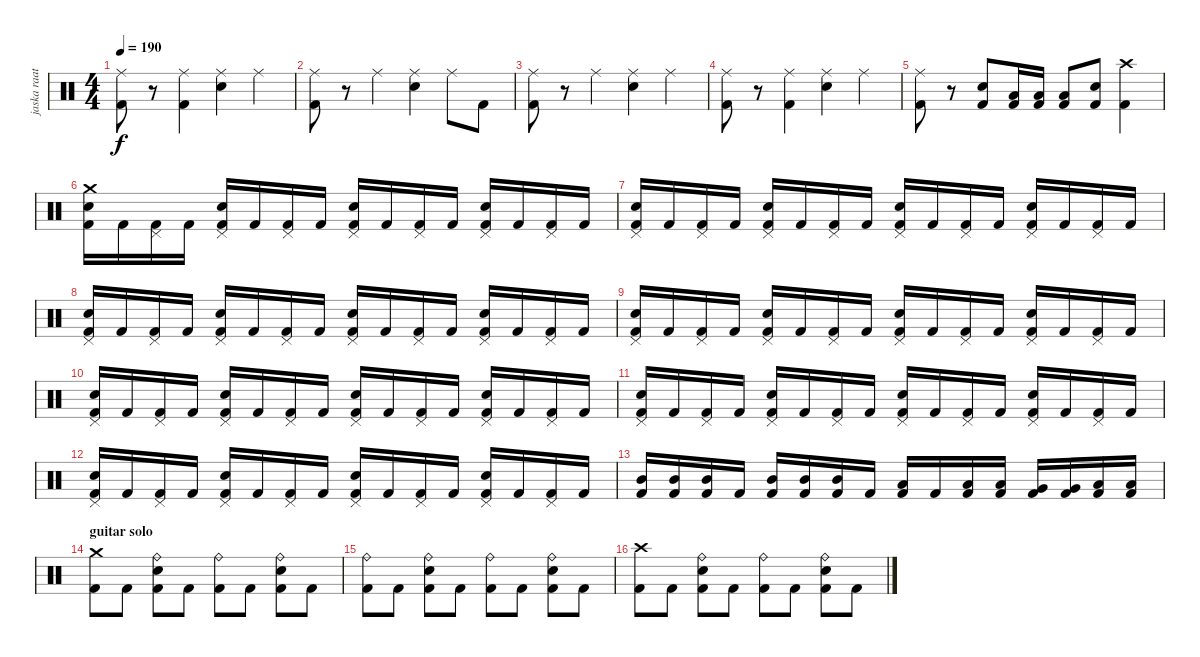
\track ("jaska raatikainen" "jaska raat") {instrument percussion}
\staff {score}
\articulation defaults
\ts (4 4)
\tempo 190
\clef neutral
\ks c
("Ride (middle)" "Kick (hit) 2").8{dy f} r.8 ("Ride (middle)" "Kick (hit) 2").4 ("Ride (middle)" "Snare (hit) 2").4 "Ride (middle)".4 |
("Ride (middle)" "Kick (hit) 2").8 r.8 "Ride (middle)".4 ("Ride (middle)" "Snare (hit) 2").4 "Ride (middle)".8 "Kick (hit) 2".8 |
("Ride (middle)" "Kick (hit) 2").8 r.8 "Ride (middle)".4 ("Ride (middle)" "Snare (hit) 2").4 "Ride (middle)".4 |
("Ride (middle)" "Kick (hit) 2").8 r.8 ("Ride (middle)" "Kick (hit) 2").4 ("Ride (middle)" "Snare (hit) 2").4 "Ride (middle)".4 |
("Ride (middle)" "Kick (hit) 2").8 r.8 ("Snare (hit) 2" "Kick (hit) 2").8 ("Low Tom (hit)" "Kick (hit) 2").16 ("Low Tom (hit)" "Kick (hit) 2").16 ("Low Tom (hit)" "Kick (hit) 2").8 ("Snare (hit) 2" "Kick (hit) 2").8 ("Crash high (hit)" "Kick (hit) 2").4 |
("Crash medium (hit)" "Snare (hit) 2" "Kick (hit) 2").16 "Kick (hit) 2".16 ("Pedal Hi-Hat (hit)" "Kick (hit) 2").16 "Kick (hit) 2".16 ("Pedal Hi-Hat (hit)" "Snare (hit) 2" "Kick (hit) 2").16 "Kick (hit) 2".16 ("Pedal Hi-Hat (hit)" "Kick (hit) 2").16 "Kick (hit) 2".16 ("Pedal Hi-Hat (hit)" "Snare (hit) 2" "Kick (hit) 2").16 "Kick (hit) 2".16 ("Pedal Hi-Hat (hit)" "Kick (hit) 2").16 "Kick (hit) 2".16 ("Pedal Hi-Hat (hit)" "Snare (hit) 2" "Kick (hit) 2").16 "Kick (hit) 2".16 ("Pedal Hi-Hat (hit)" "Kick (hit) 2").16 "Kick (hit) 2".16 |
("Pedal Hi-Hat (hit)" "Snare (hit) 2" "Kick (hit) 2").16 "Kick (hit) 2".16 ("Pedal Hi-Hat (hit)" "Kick (hit) 2").16 "Kick (hit) 2".16 ("Pedal Hi-Hat (hit)" "Snare (hit) 2" "Kick (hit) 2").16 "Kick (hit) 2".16 ("Pedal Hi-Hat (hit)" "Kick (hit) 2").16 "Kick (hit) 2".16 ("Pedal Hi-Hat (hit)" "Snare (hit) 2" "Kick (hit) 2").16 "Kick (hit) 2".16 ("Pedal Hi-Hat (hit)" "Kick (hit) 2").16 "Kick (hit) 2".16 ("Pedal Hi-Hat (hit)" "Snare (hit) 2" "Kick (hit) 2").16 "Kick (hit) 2".16 ("Pedal Hi-Hat (hit)" "Kick (hit) 2").16 "Kick (hit) 2".16 |
("Pedal Hi-Hat (hit)" "Snare (hit) 2" "Kick (hit) 2").16 "Kick (hit) 2".16 ("Pedal Hi-Hat (hit)" "Kick (hit) 2").16 "Kick (hit) 2".16 ("Pedal Hi-Hat (hit)" "Snare (hit) 2" "Kick (hit) 2").16 "Kick (hit) 2".16 ("Pedal Hi-Hat (hit)" "Kick (hit) 2").16 "Kick (hit) 2".16 ("Pedal Hi-Hat (hit)" "Snare (hit) 2" "Kick (hit) 2").16 "Kick (hit) 2".16 ("Pedal Hi-Hat (hit)" "Kick (hit) 2").16 "Kick (hit) 2".16 ("Pedal Hi-Hat (hit)" "Snare (hit) 2" "Kick (hit) 2").16 "Kick (hit) 2".16 ("Pedal Hi-Hat (hit)" "Kick (hit) 2").16 "Kick (hit) 2".16 |
("Pedal Hi-Hat (hit)" "Snare (hit) 2" "Kick (hit) 2").16 "Kick (hit) 2".16 ("Pedal Hi-Hat (hit)" "Kick (hit) 2").16 "Kick (hit) 2".16 ("Pedal Hi-Hat (hit)" "Snare (hit) 2" "Kick (hit) 2").16 "Kick (hit) 2".16 ("Pedal Hi-Hat (hit)" "Kick (hit) 2").16 "Kick (hit) 2".16 ("Pedal Hi-Hat (hit)" "Snare (hit) 2" "Kick (hit) 2").16 "Kick (hit) 2".16 ("Pedal Hi-Hat (hit)" "Kick (hit) 2").16 "Kick (hit) 2".16 ("Pedal Hi-Hat (hit)" "Snare (hit) 2" "Kick (hit) 2").16 "Kick (hit) 2".16 ("Pedal Hi-Hat (hit)" "Kick (hit) 2").16 "Kick (hit) 2".16 |
("Pedal Hi-Hat (hit)" "Snare (hit) 2" "Kick (hit) 2").16 "Kick (hit) 2".16 ("Pedal Hi-Hat (hit)" "Kick (hit) 2").16 "Kick (hit) 2".16 ("Pedal Hi-Hat (hit)" "Snare (hit) 2" "Kick (hit) 2").16 "Kick (hit) 2".16 ("Pedal Hi-Hat (hit)" "Kick (hit) 2").16 "Kick (hit) 2".16 ("Pedal Hi-Hat (hit)" "Snare (hit) 2" "Kick (hit) 2").16 "Kick (hit) 2".16 ("Pedal Hi-Hat (hit)" "Kick (hit) 2").16 "Kick (hit) 2".16 ("Pedal Hi-Hat (hit)" "Snare (hit) 2" "Kick (hit) 2").16 "Kick (hit) 2".16 ("Pedal Hi-Hat (hit)" "Kick (hit) 2").16 "Kick (hit) 2".16 |
("Pedal Hi-Hat (hit)" "Snare (hit) 2" "Kick (hit) 2").16 "Kick (hit) 2".16 ("Pedal Hi-Hat (hit)" "Kick (hit) 2").16 "Kick (hit) 2".16 ("Pedal Hi-Hat (hit)" "Snare (hit) 2" "Kick (hit) 2").16 "Kick (hit) 2".16 ("Pedal Hi-Hat (hit)" "Kick (hit) 2").16 "Kick (hit) 2".16 ("Pedal Hi-Hat (hit)" "Snare (hit) 2" "Kick (hit) 2").16 "Kick (hit) 2".16 ("Pedal Hi-Hat (hit)" "Kick (hit) 2").16 "Kick (hit) 2".16 ("Pedal Hi-Hat (hit)" "Snare (hit) 2" "Kick (hit) 2").16 "Kick (hit) 2".16 ("Pedal Hi-Hat (hit)" "Kick (hit) 2").16 "Kick (hit) 2".16 |
("Pedal Hi-Hat (hit)" "Snare (hit) 2" "Kick (hit) 2").16 "Kick (hit) 2".16 ("Pedal Hi-Hat (hit)" "Kick (hit) 2").16 "Kick (hit) 2".16 ("Pedal Hi-Hat (hit)" "Snare (hit) 2" "Kick (hit) 2").16 "Kick (hit) 2".16 ("Pedal Hi-Hat (hit)" "Kick (hit) 2").16 "Kick (hit) 2".16 ("Pedal Hi-Hat (hit)" "Snare (hit) 2" "Kick (hit) 2").16 "Kick (hit) 2".16 ("Pedal Hi-Hat (hit)" "Kick (hit) 2").16 "Kick (hit) 2".16 ("Pedal Hi-Hat (hit)" "Snare (hit) 2" "Kick (hit) 2").16 "Kick (hit) 2".16 ("Pedal Hi-Hat (hit)" "Kick (hit) 2").16 "Kick (hit) 2".16 |
("Mid Tom (hit)" "Kick (hit) 2").16 ("Mid Tom (hit)" "Kick (hit) 2").16 ("Mid Tom (hit)" "Kick (hit) 2").16 "Kick (hit) 2".16 ("Mid Tom (hit)" "Kick (hit) 2").16 ("Mid Tom (hit)" "Kick (hit) 2").16 ("Mid Tom (hit)" "Kick (hit) 2").16 "Kick (hit) 2".16 ("Low Tom (hit)" "Kick (hit) 2").16 "Kick (hit) 2".16 ("Low Tom (hit)" "Kick (hit) 2").16 ("Low Tom (hit)" "Kick (hit) 2").16 ("Very Low Tom (hit)" "Kick (hit) 2").16 ("Very Low Tom (hit)" "Kick (hit) 2").16 ("Low Floor Tom (hit)" "Kick (hit) 2").16 ("Low Floor Tom (hit)" "Kick (hit) 2").16 |
\section ("" "guitar solo")
("Crash medium (hit)" "Kick (hit) 2").8 "Kick (hit) 2".8 ("Ride (bell)" "Snare (hit) 2" "Kick (hit) 2").8 "Kick (hit) 2".8 ("Ride (bell)" "Kick (hit) 2").8 "Kick (hit) 2".8 ("Ride (bell)" "Snare (hit) 2" "Kick (hit) 2").8 "Kick (hit) 2".8 |
("Ride (bell)" "Kick (hit) 2").8 "Kick (hit) 2".8 ("Ride (bell)" "Snare (hit) 2" "Kick (hit) 2").8 "Kick (hit) 2".8 ("Ride (bell)" "Kick (hit) 2").8 "Kick (hit) 2".8 ("Ride (bell)" "Snare (hit) 2" "Kick (hit) 2").8 "Kick (hit) 2".8 |
("Crash high (hit)" "Kick (hit) 2").8 "Kick (hit) 2".8 ("Ride (bell)" "Snare (hit) 2" "Kick (hit) 2").8 "Kick (hit) 2".8 ("Ride (bell)" "Kick (hit) 2").8 "Kick (hit) 2".8 ("Ride (bell)" "Snare (hit) 2" "Kick (hit) 2").8 "Kick (hit) 2".8
